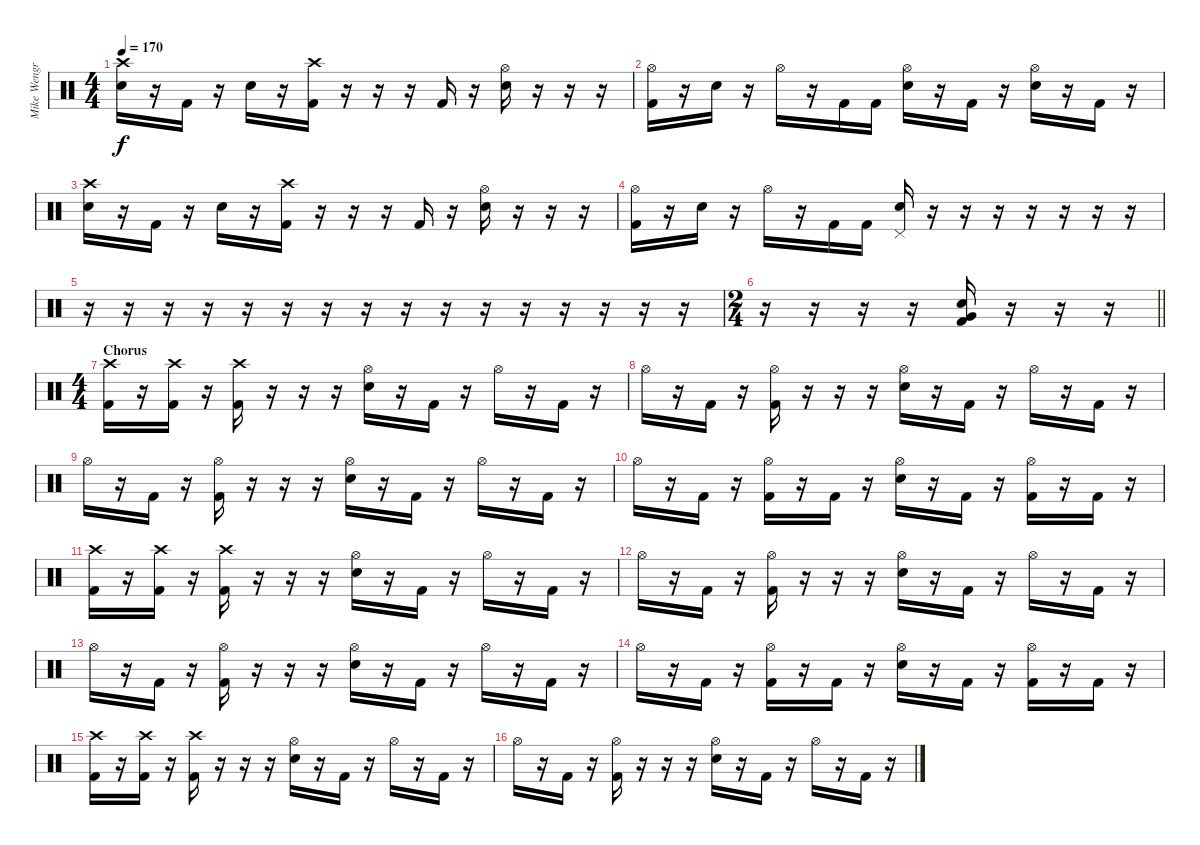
\track ("Mike Wengren" "Mike Wengr") {instrument percussion}
\staff {score}
\articulation defaults
\ts (4 4)
\tempo 170
\clef neutral
\ks c
("Crash high (hit)" "Snare (hit) 2").16{dy f} r.16 "Kick (hit) 2".16 r.16 "Snare (hit) 2".16 r.16 ("Crash high (hit)" "Kick (hit) 2").16 r.16 r.16 r.16 "Kick (hit) 2".16 r.16 ("Hi-Hat (open)" "Snare (hit) 2").16 r.16 r.16 r.16 |
("Hi-Hat (open)" "Kick (hit) 2").16 r.16 "Snare (hit) 2".16 r.16 "Hi-Hat (open)".16 r.16 "Kick (hit) 2".16 "Kick (hit) 2".16 ("Hi-Hat (open)" "Snare (hit) 2").16 r.16 "Kick (hit) 2".16 r.16 ("Hi-Hat (open)" "Snare (hit) 2").16 r.16 "Kick (hit) 2".16 r.16 |
("Crash high (hit)" "Snare (hit) 2").16 r.16 "Kick (hit) 2".16 r.16 "Snare (hit) 2".16 r.16 ("Crash high (hit)" "Kick (hit) 2").16 r.16 r.16 r.16 "Kick (hit) 2".16 r.16 ("Hi-Hat (open)" "Snare (hit) 2").16 r.16 r.16 r.16 |
("Hi-Hat (open)" "Kick (hit) 2").16 r.16 "Snare (hit) 2".16 r.16 "Hi-Hat (open)".16 r.16 "Kick (hit) 2".16 "Kick (hit) 2".16 ("Pedal Hi-Hat (hit)" "Snare (hit) 2").16 r.16 r.16 r.16 r.16 r.16 r.16 r.16 |
r.16 r.16 r.16 r.16 r.16 r.16 r.16 r.16 r.16 r.16 r.16 r.16 r.16 r.16 r.16 r.16 |
\ts (2 4)
\barLineRight lightlight
r.16 r.16 r.16 r.16 ("Very Low Tom (hit)" "Snare (hit) 2" "Kick (hit) 2").16 r.16 r.16 r.16 |
\ts (4 4)
\section ("" "Chorus")
("Crash high (hit)" "Kick (hit) 2").16 r.16 ("Crash high (hit)" "Kick (hit) 2").16 r.16 ("Crash high (hit)" "Kick (hit) 2").16 r.16 r.16 r.16 ("Hi-Hat (open)" "Snare (hit) 2").16 r.16 "Kick (hit) 2".16 r.16 "Hi-Hat (open)".16 r.16 "Kick (hit) 2".16 r.16 |
"Hi-Hat (open)".16 r.16 "Kick (hit) 2".16 r.16 ("Hi-Hat (open)" "Kick (hit) 2").16 r.16 r.16 r.16 ("Hi-Hat (open)" "Snare (hit) 2").16 r.16 "Kick (hit) 2".16 r.16 "Hi-Hat (open)".16 r.16 "Kick (hit) 2".16 r.16 |
"Hi-Hat (open)".16 r.16 "Kick (hit) 2".16 r.16 ("Hi-Hat (open)" "Kick (hit) 2").16 r.16 r.16 r.16 ("Hi-Hat (open)" "Snare (hit) 2").16 r.16 "Kick (hit) 2".16 r.16 "Hi-Hat (open)".16 r.16 "Kick (hit) 2".16 r.16 |
"Hi-Hat (open)".16 r.16 "Kick (hit) 2".16 r.16 ("Hi-Hat (open)" "Kick (hit) 2").16 r.16 "Kick (hit) 2".16 r.16 ("Hi-Hat (open)" "Snare (hit) 2").16 r.16 "Kick (hit) 2".16 r.16 ("Hi-Hat (open)" "Kick (hit) 2").16 r.16 "Kick (hit) 2".16 r.16 |
("Crash high (hit)" "Kick (hit) 2").16 r.16 ("Crash high (hit)" "Kick (hit) 2").16 r.16 ("Crash high (hit)" "Kick (hit) 2").16 r.16 r.16 r.16 ("Hi-Hat (open)" "Snare (hit) 2").16 r.16 "Kick (hit) 2".16 r.16 "Hi-Hat (open)".16 r.16 "Kick (hit) 2".16 r.16 |
"Hi-Hat (open)".16 r.16 "Kick (hit) 2".16 r.16 ("Hi-Hat (open)" "Kick (hit) 2").16 r.16 r.16 r.16 ("Hi-Hat (open)" "Snare (hit) 2").16 r.16 "Kick (hit) 2".16 r.16 "Hi-Hat (open)".16 r.16 "Kick (hit) 2".16 r.16 |
"Hi-Hat (open)".16 r.16 "Kick (hit) 2".16 r.16 ("Hi-Hat (open)" "Kick (hit) 2").16 r.16 r.16 r.16 ("Hi-Hat (open)" "Snare (hit) 2").16 r.16 "Kick (hit) 2".16 r.16 "Hi-Hat (open)".16 r.16 "Kick (hit) 2".16 r.16 |
"Hi-Hat (open)".16 r.16 "Kick (hit) 2".16 r.16 ("Hi-Hat (open)" "Kick (hit) 2").16 r.16 "Kick (hit) 2".16 r.16 ("Hi-Hat (open)" "Snare (hit) 2").16 r.16 "Kick (hit) 2".16 r.16 ("Hi-Hat (open)" "Kick (hit) 2").16 r.16 "Kick (hit) 2".16 r.16 |
("Crash high (hit)" "Kick (hit) 2").16 r.16 ("Crash high (hit)" "Kick (hit) 2").16 r.16 ("Crash high (hit)" "Kick (hit) 2").16 r.16 r.16 r.16 ("Hi-Hat (open)" "Snare (hit) 2").16 r.16 "Kick (hit) 2".16 r.16 "Hi-Hat (open)".16 r.16 "Kick (hit) 2".16 r.16 |
"Hi-Hat (open)".16 r.16 "Kick (hit) 2".16 r.16 ("Hi-Hat (open)" "Kick (hit) 2").16 r.16 r.16 r.16 ("Hi-Hat (open)" "Snare (hit) 2").16 r.16 "Kick (hit) 2".16 r.16 "Hi-Hat (open)".16 r.16 "Kick (hit) 2".16 r.16
